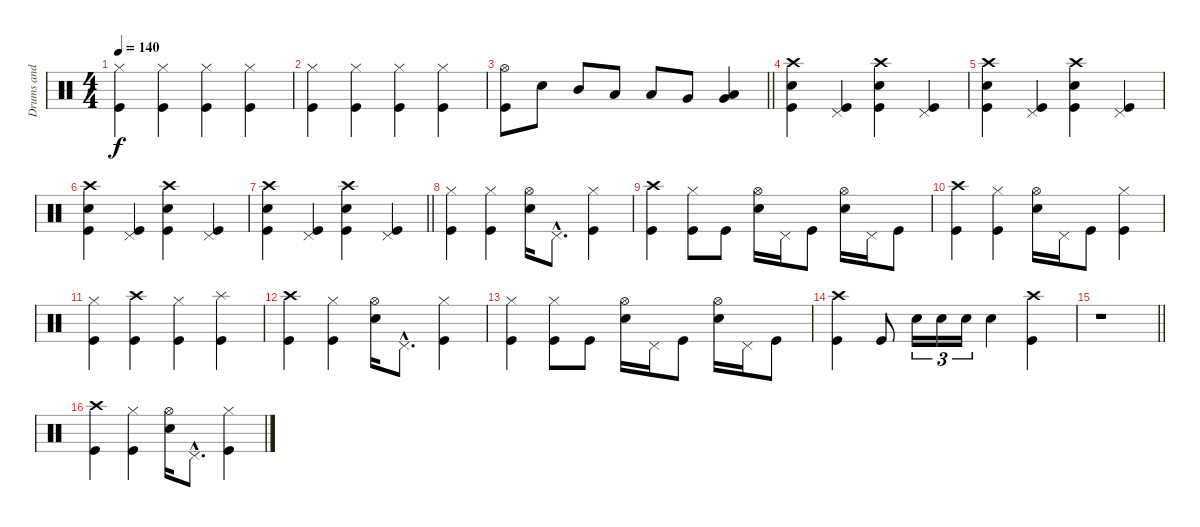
\track ("Drums and percussion" "Drums and ") {instrument percussion}
\staff {score}
\articulation defaults
\ts (4 4)
\tempo 140
\clef neutral
\ks c
("Hi-Hat (closed)" "Kick (hit)").4{dy f} ("Hi-Hat (closed)" "Kick (hit)").4 ("Hi-Hat (closed)" "Kick (hit)").4 ("Hi-Hat (closed)" "Kick (hit)").4 |
("Hi-Hat (closed)" "Kick (hit)").4 ("Hi-Hat (closed)" "Kick (hit)").4 ("Hi-Hat (closed)" "Kick (hit)").4 ("Hi-Hat (closed)" "Kick (hit)").4 |
\barLineRight lightlight
("Hi-Hat (open)" "Kick (hit)").8 "Electric Snare (hit)".8 "Mid Tom (hit)".8 "Low Tom (hit)".8 "Low Tom (hit)".8 "Very Low Tom (hit)".8 ("Very Low Tom (hit)" "Low Floor Tom (hit)").4 |
("Crash high (hit)" "Electric Snare (hit)" "Kick (hit)").4 ("Pedal Hi-Hat (hit)" "Kick (hit)").4 ("Crash high (hit)" "Electric Snare (hit)" "Kick (hit)").4 ("Pedal Hi-Hat (hit)" "Kick (hit)").4 |
("Crash high (hit)" "Electric Snare (hit)" "Kick (hit)").4 ("Pedal Hi-Hat (hit)" "Kick (hit)").4 ("Crash high (hit)" "Electric Snare (hit)" "Kick (hit)").4 ("Pedal Hi-Hat (hit)" "Kick (hit)").4 |
("Crash high (hit)" "Electric Snare (hit)" "Kick (hit)").4 ("Pedal Hi-Hat (hit)" "Kick (hit)").4 ("Crash high (hit)" "Electric Snare (hit)" "Kick (hit)").4 ("Pedal Hi-Hat (hit)" "Kick (hit)").4 |
\barLineRight lightlight
("Crash high (hit)" "Electric Snare (hit)" "Kick (hit)").4 ("Pedal Hi-Hat (hit)" "Kick (hit)").4 ("Crash high (hit)" "Electric Snare (hit)" "Kick (hit)").4 ("Pedal Hi-Hat (hit)" "Kick (hit)").4 |
("Hi-Hat (closed)" "Kick (hit)").4 ("Hi-Hat (closed)" "Kick (hit)").4 ("Hi-Hat (open)" "Electric Snare (hit)").16 "Pedal Hi-Hat (hit)"{hac}.8{d} ("Hi-Hat (closed)" "Kick (hit)").4 |
("Crash high (hit)" "Kick (hit)").4 ("Hi-Hat (closed)" "Kick (hit)").8 "Kick (hit)".8 ("Hi-Hat (open)" "Electric Snare (hit)").16 "Pedal Hi-Hat (hit)".16 "Kick (hit)".8 ("Hi-Hat (open)" "Electric Snare (hit)").16 "Pedal Hi-Hat (hit)".16 "Kick (hit)".8 |
("Crash high (hit)" "Kick (hit)").4 ("Hi-Hat (closed)" "Kick (hit)").4 ("Hi-Hat (open)" "Electric Snare (hit)").16 "Pedal Hi-Hat (hit)".16 "Kick (hit)".8 ("Hi-Hat (closed)" "Kick (hit)").4 |
("Hi-Hat (closed)" "Kick (hit)").4 ("Crash high (hit)" "Kick (hit)").4 ("Hi-Hat (closed)" "Kick (hit)").4 ("Splash (hit)" "Kick (hit)").4 |
("Crash high (hit)" "Kick (hit)").4 ("Hi-Hat (closed)" "Kick (hit)").4 ("Hi-Hat (open)" "Electric Snare (hit)").16 "Pedal Hi-Hat (hit)"{hac}.8{d} ("Hi-Hat (closed)" "Kick (hit)").4 |
("Hi-Hat (closed)" "Kick (hit)").4 ("Hi-Hat (closed)" "Kick (hit)").8 "Kick (hit)".8 ("Hi-Hat (open)" "Electric Snare (hit)").16 "Pedal Hi-Hat (hit)".16 "Kick (hit)".8 ("Hi-Hat (open)" "Electric Snare (hit)").16 "Pedal Hi-Hat (hit)".16 "Kick (hit)".8 |
("Crash high (hit)" "Kick (hit)").4 "Kick (hit)".8 "Electric Snare (hit)".16{tu (3 2)} "Electric Snare (hit)".16{tu (3 2)} "Electric Snare (hit)".16{tu (3 2)} "Electric Snare (hit)".4 ("Crash high (hit)" "Kick (hit)").4 |
\barLineRight lightlight
r.1 |
("Crash high (hit)" "Kick (hit)").4 ("Hi-Hat (closed)" "Kick (hit)").4 ("Hi-Hat (open)" "Electric Snare (hit)").16 "Pedal Hi-Hat (hit)"{hac}.8{d} ("Hi-Hat (closed)" "Kick (hit)").4
